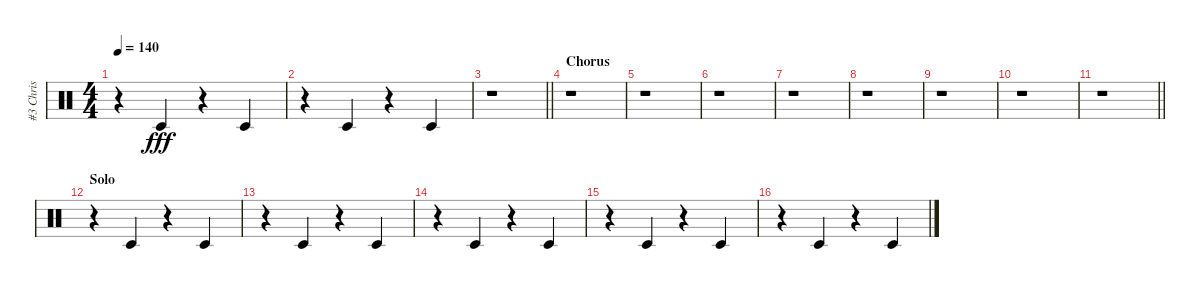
\track ("#3 Chris" "#3 Chris") {solo instrument percussion}
\staff {score}
\articulation defaults
\ts (4 4)
\tempo 140
\clef neutral
\ks c
r.4{dy fff} "Timbale low (hit)".4 r.4 "Timbale low (hit)".4 |
r.4 "Timbale low (hit)".4 r.4 "Timbale low (hit)".4 |
\barLineRight lightlight
r.1 |
\section ("" "Chorus")
r.1 |
r.1 |
r.1 |
r.1 |
r.1 |
r.1 |
r.1 |
\barLineRight lightlight
r.1 |
\section ("" "Solo")
r.4 "Timbale low (hit)".4 r.4 "Timbale low (hit)".4 |
r.4 "Timbale low (hit)".4 r.4 "Timbale low (hit)".4 |
r.4 "Timbale low (hit)".4 r.4 "Timbale low (hit)".4 |
r.4 "Timbale low (hit)".4 r.4 "Timbale low (hit)".4 |
r.4 "Timbale low (hit)".4 r.4 "Timbale low (hit)".4
